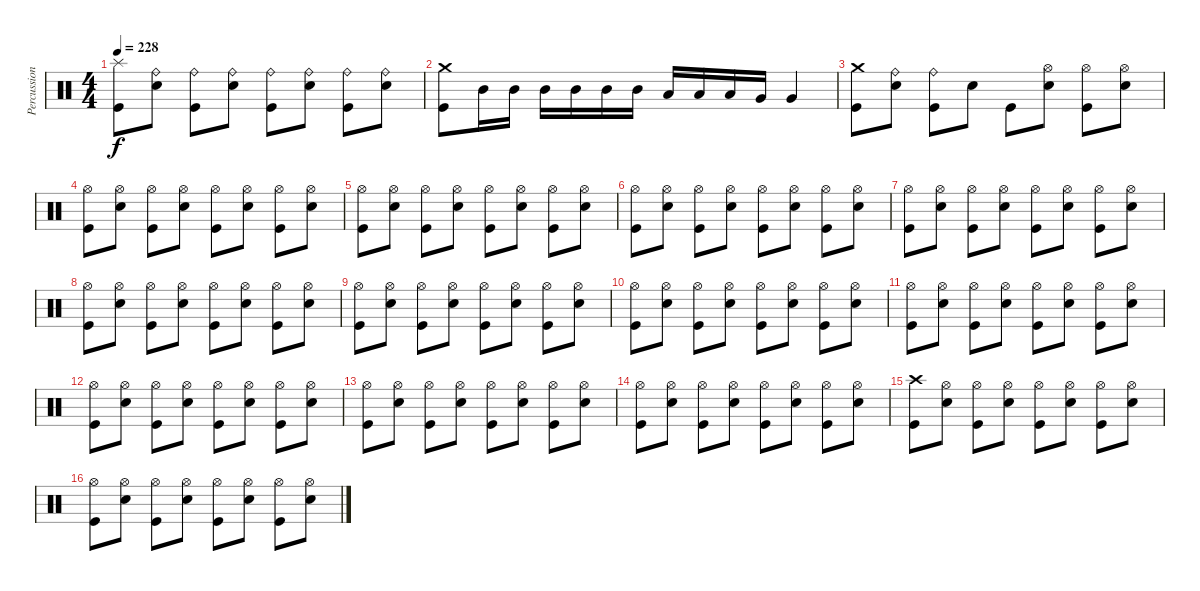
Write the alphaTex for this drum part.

\track ("Percussions" "Percussion") {instrument percussion}
\staff {score}
\articulation defaults
\ts (4 4)
\tempo 228
\clef neutral
\ks c
("Kick (hit)" "Splash (hit)").8{dy f} ("Electric Snare (hit)" "Ride (bell)").8 ("Kick (hit)" "Ride (bell)").8 ("Electric Snare (hit)" "Ride (bell)").8 ("Kick (hit)" "Ride (bell)").8 ("Electric Snare (hit)" "Ride (bell)").8 ("Kick (hit)" "Ride (bell)").8 ("Electric Snare (hit)" "Ride (bell)").8 |
("Kick (hit)" "Crash medium (hit)").8 "Mid Tom (hit)".16 "Mid Tom (hit)".16 "Mid Tom (hit)".16 "Mid Tom (hit)".16 "Mid Tom (hit)".16 "Mid Tom (hit)".16 "Low Tom (hit)".16 "Low Tom (hit)".16 "Low Tom (hit)".16 "Very Low Tom (hit)".16 "Very Low Tom (hit)".4 |
("Kick (hit)" "Crash medium (hit)").8 ("Electric Snare (hit)" "Ride (bell)").8 ("Kick (hit)" "Ride (bell)").8 "Electric Snare (hit)".8 "Kick (hit)".8 ("Electric Snare (hit)" "Hi-Hat (open)").8 ("Kick (hit)" "Hi-Hat (open)").8 ("Electric Snare (hit)" "Hi-Hat (open)").8 |
("Kick (hit)" "Hi-Hat (open)").8 ("Electric Snare (hit)" "Hi-Hat (open)").8 ("Kick (hit)" "Hi-Hat (open)").8 ("Electric Snare (hit)" "Hi-Hat (open)").8 ("Kick (hit)" "Hi-Hat (open)").8 ("Electric Snare (hit)" "Hi-Hat (open)").8 ("Kick (hit)" "Hi-Hat (open)").8 ("Electric Snare (hit)" "Hi-Hat (open)").8 |
("Kick (hit)" "Hi-Hat (open)").8 ("Electric Snare (hit)" "Hi-Hat (open)").8 ("Kick (hit)" "Hi-Hat (open)").8 ("Electric Snare (hit)" "Hi-Hat (open)").8 ("Kick (hit)" "Hi-Hat (open)").8 ("Electric Snare (hit)" "Hi-Hat (open)").8 ("Kick (hit)" "Hi-Hat (open)").8 ("Electric Snare (hit)" "Hi-Hat (open)").8 |
("Kick (hit)" "Hi-Hat (open)").8 ("Electric Snare (hit)" "Hi-Hat (open)").8 ("Kick (hit)" "Hi-Hat (open)").8 ("Electric Snare (hit)" "Hi-Hat (open)").8 ("Kick (hit)" "Hi-Hat (open)").8 ("Electric Snare (hit)" "Hi-Hat (open)").8 ("Kick (hit)" "Hi-Hat (open)").8 ("Electric Snare (hit)" "Hi-Hat (open)").8 |
("Kick (hit)" "Hi-Hat (open)").8 ("Electric Snare (hit)" "Hi-Hat (open)").8 ("Kick (hit)" "Hi-Hat (open)").8 ("Electric Snare (hit)" "Hi-Hat (open)").8 ("Kick (hit)" "Hi-Hat (open)").8 ("Electric Snare (hit)" "Hi-Hat (open)").8 ("Kick (hit)" "Hi-Hat (open)").8 ("Electric Snare (hit)" "Hi-Hat (open)").8 |
("Kick (hit)" "Hi-Hat (open)").8 ("Electric Snare (hit)" "Hi-Hat (open)").8 ("Kick (hit)" "Hi-Hat (open)").8 ("Electric Snare (hit)" "Hi-Hat (open)").8 ("Kick (hit)" "Hi-Hat (open)").8 ("Electric Snare (hit)" "Hi-Hat (open)").8 ("Kick (hit)" "Hi-Hat (open)").8 ("Electric Snare (hit)" "Hi-Hat (open)").8 |
("Kick (hit)" "Hi-Hat (open)").8 ("Electric Snare (hit)" "Hi-Hat (open)").8 ("Kick (hit)" "Hi-Hat (open)").8 ("Electric Snare (hit)" "Hi-Hat (open)").8 ("Kick (hit)" "Hi-Hat (open)").8 ("Electric Snare (hit)" "Hi-Hat (open)").8 ("Kick (hit)" "Hi-Hat (open)").8 ("Electric Snare (hit)" "Hi-Hat (open)").8 |
("Kick (hit)" "Hi-Hat (open)").8 ("Electric Snare (hit)" "Hi-Hat (open)").8 ("Kick (hit)" "Hi-Hat (open)").8 ("Electric Snare (hit)" "Hi-Hat (open)").8 ("Kick (hit)" "Hi-Hat (open)").8 ("Electric Snare (hit)" "Hi-Hat (open)").8 ("Kick (hit)" "Hi-Hat (open)").8 ("Electric Snare (hit)" "Hi-Hat (open)").8 |
("Kick (hit)" "Hi-Hat (open)").8 ("Electric Snare (hit)" "Hi-Hat (open)").8 ("Kick (hit)" "Hi-Hat (open)").8 ("Electric Snare (hit)" "Hi-Hat (open)").8 ("Kick (hit)" "Hi-Hat (open)").8 ("Electric Snare (hit)" "Hi-Hat (open)").8 ("Kick (hit)" "Hi-Hat (open)").8 ("Electric Snare (hit)" "Hi-Hat (open)").8 |
("Kick (hit)" "Hi-Hat (open)").8 ("Electric Snare (hit)" "Hi-Hat (open)").8 ("Kick (hit)" "Hi-Hat (open)").8 ("Electric Snare (hit)" "Hi-Hat (open)").8 ("Kick (hit)" "Hi-Hat (open)").8 ("Electric Snare (hit)" "Hi-Hat (open)").8 ("Kick (hit)" "Hi-Hat (open)").8 ("Electric Snare (hit)" "Hi-Hat (open)").8 |
("Kick (hit)" "Hi-Hat (open)").8 ("Electric Snare (hit)" "Hi-Hat (open)").8 ("Kick (hit)" "Hi-Hat (open)").8 ("Electric Snare (hit)" "Hi-Hat (open)").8 ("Kick (hit)" "Hi-Hat (open)").8 ("Electric Snare (hit)" "Hi-Hat (open)").8 ("Kick (hit)" "Hi-Hat (open)").8 ("Electric Snare (hit)" "Hi-Hat (open)").8 |
("Kick (hit)" "Hi-Hat (open)").8 ("Electric Snare (hit)" "Hi-Hat (open)").8 ("Kick (hit)" "Hi-Hat (open)").8 ("Electric Snare (hit)" "Hi-Hat (open)").8 ("Kick (hit)" "Hi-Hat (open)").8 ("Electric Snare (hit)" "Hi-Hat (open)").8 ("Kick (hit)" "Hi-Hat (open)").8 ("Electric Snare (hit)" "Hi-Hat (open)").8 |
("Kick (hit)" "Crash high (hit)").8 ("Electric Snare (hit)" "Hi-Hat (open)").8 ("Kick (hit)" "Hi-Hat (open)").8 ("Electric Snare (hit)" "Hi-Hat (open)").8 ("Kick (hit)" "Hi-Hat (open)").8 ("Electric Snare (hit)" "Hi-Hat (open)").8 ("Kick (hit)" "Hi-Hat (open)").8 ("Electric Snare (hit)" "Hi-Hat (open)").8 |
("Kick (hit)" "Hi-Hat (open)").8 ("Electric Snare (hit)" "Hi-Hat (open)").8 ("Kick (hit)" "Hi-Hat (open)").8 ("Electric Snare (hit)" "Hi-Hat (open)").8 ("Kick (hit)" "Hi-Hat (open)").8 ("Electric Snare (hit)" "Hi-Hat (open)").8 ("Kick (hit)" "Hi-Hat (open)").8 ("Electric Snare (hit)" "Hi-Hat (open)").8
